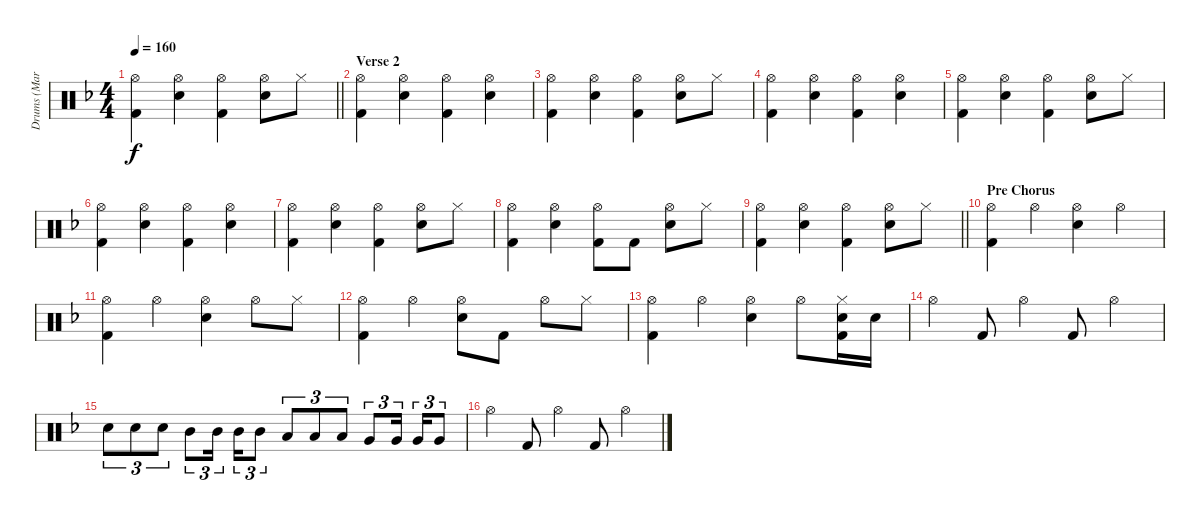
\track ("Drums (Mark)" "Drums (Mar") {instrument percussion}
\staff {score}
\articulation defaults
\ts (4 4)
\tempo 160
\clef neutral
\barLineRight lightlight
\ks dminor
("Hi-Hat (open)" "Kick (hit) 2").4{dy f} ("Hi-Hat (open)" "Electric Snare (hit)").4 ("Hi-Hat (open)" "Kick (hit) 2").4 ("Hi-Hat (open)" "Electric Snare (hit)").8 "Hi-Hat (closed)".8 |
\section ("" "Verse 2")
("Hi-Hat (open)" "Kick (hit) 2").4 ("Hi-Hat (open)" "Electric Snare (hit)").4 ("Hi-Hat (open)" "Kick (hit) 2").4 ("Hi-Hat (open)" "Electric Snare (hit)").4 |
("Hi-Hat (open)" "Kick (hit) 2").4 ("Hi-Hat (open)" "Electric Snare (hit)").4 ("Hi-Hat (open)" "Kick (hit) 2").4 ("Hi-Hat (open)" "Electric Snare (hit)").8 "Hi-Hat (closed)".8 |
("Hi-Hat (open)" "Kick (hit) 2").4 ("Hi-Hat (open)" "Electric Snare (hit)").4 ("Hi-Hat (open)" "Kick (hit) 2").4 ("Hi-Hat (open)" "Electric Snare (hit)").4 |
("Hi-Hat (open)" "Kick (hit) 2").4 ("Hi-Hat (open)" "Electric Snare (hit)").4 ("Hi-Hat (open)" "Kick (hit) 2").4 ("Hi-Hat (open)" "Electric Snare (hit)").8 "Hi-Hat (closed)".8 |
("Hi-Hat (open)" "Kick (hit) 2").4 ("Hi-Hat (open)" "Electric Snare (hit)").4 ("Hi-Hat (open)" "Kick (hit) 2").4 ("Hi-Hat (open)" "Electric Snare (hit)").4 |
("Hi-Hat (open)" "Kick (hit) 2").4 ("Hi-Hat (open)" "Electric Snare (hit)").4 ("Hi-Hat (open)" "Kick (hit) 2").4 ("Hi-Hat (open)" "Electric Snare (hit)").8 "Hi-Hat (closed)".8 |
("Hi-Hat (open)" "Kick (hit) 2").4 ("Hi-Hat (open)" "Electric Snare (hit)").4 ("Hi-Hat (open)" "Kick (hit) 2").8 "Kick (hit) 2".8 ("Hi-Hat (open)" "Electric Snare (hit)").8 "Hi-Hat (closed)".8 |
\barLineRight lightlight
("Hi-Hat (open)" "Kick (hit) 2").4 ("Hi-Hat (open)" "Electric Snare (hit)").4 ("Hi-Hat (open)" "Kick (hit) 2").4 ("Hi-Hat (open)" "Electric Snare (hit)").8 "Hi-Hat (closed)".8 |
\section ("" "Pre Chorus")
("Hi-Hat (open)" "Kick (hit) 2").4 "Hi-Hat (open)".4 ("Hi-Hat (open)" "Electric Snare (hit)").4 "Hi-Hat (open)".4 |
("Hi-Hat (open)" "Kick (hit) 2").4 "Hi-Hat (open)".4 ("Hi-Hat (open)" "Electric Snare (hit)").4 "Hi-Hat (open)".8 "Hi-Hat (closed)".8 |
("Hi-Hat (open)" "Kick (hit) 2").4 "Hi-Hat (open)".4 ("Hi-Hat (open)" "Electric Snare (hit)").8 "Kick (hit) 2".8 "Hi-Hat (open)".8 "Hi-Hat (closed)".8 |
("Hi-Hat (open)" "Kick (hit) 2").4 "Hi-Hat (open)".4 ("Hi-Hat (open)" "Electric Snare (hit)").4 "Hi-Hat (open)".8 ("Hi-Hat (closed)" "Snare (hit) 2" "Kick (hit) 2").16 "Snare (hit) 2".16 |
"Hi-Hat (open)".4 "Kick (hit) 2".8 "Hi-Hat (open)".4 "Kick (hit) 2".8 "Hi-Hat (open)".4 |
"Snare (hit) 2".8{tu (3 2)} "Snare (hit) 2".8{tu (3 2)} "Snare (hit) 2".8{tu (3 2)} "Mid Tom (hit)".8{tu (3 2)} "Mid Tom (hit)".16{tu (3 2) beam splitsecondary} "Mid Tom (hit)".16{tu (3 2)} "Mid Tom (hit)".8{tu (3 2)} "Low Tom (hit)".8{tu (3 2)} "Low Tom (hit)".8{tu (3 2)} "Low Tom (hit)".8{tu (3 2)} "Very Low Tom (hit)".8{tu (3 2)} "Very Low Tom (hit)".16{tu (3 2) beam splitsecondary} "Very Low Tom (hit)".16{tu (3 2)} "Very Low Tom (hit)".8{tu (3 2)} |
"Hi-Hat (open)".4 "Kick (hit) 2".8 "Hi-Hat (open)".4 "Kick (hit) 2".8 "Hi-Hat (open)".4
